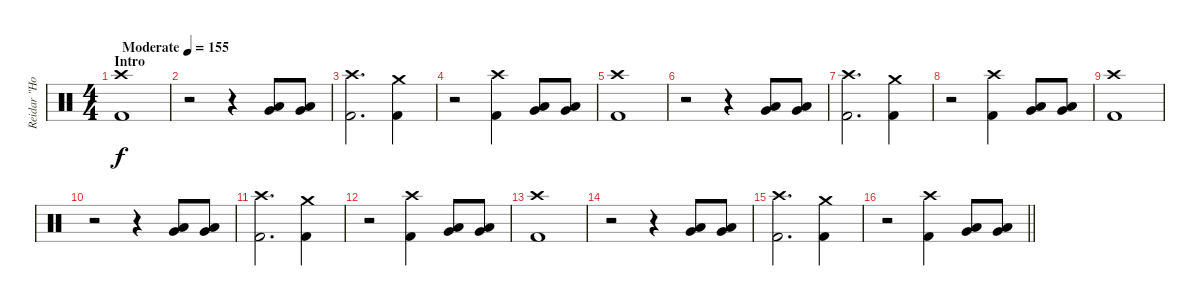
\track ("Reidar \"Horgh\" Horghagen " "Reidar \"Ho") {instrument percussion}
\staff {score}
\articulation defaults
\ts (4 4)
\section ("" "Intro")
\tempo (155 "Moderate")
\clef neutral
\ks c
("Crash high (hit)" "Kick (hit) 2").1{dy f} |
r.2 r.4 ("Very Low Tom (hit)" "Low Floor Tom (hit)").8 ("Very Low Tom (hit)" "Low Floor Tom (hit)").8 |
("Crash high (hit)" "Kick (hit) 2").2{d} ("Crash medium (hit)" "Kick (hit) 2").4 |
r.2 ("Crash high (hit)" "Kick (hit) 2").4 ("Very Low Tom (hit)" "Low Floor Tom (hit)").8 ("Very Low Tom (hit)" "Low Floor Tom (hit)").8 |
("Crash high (hit)" "Kick (hit) 2").1 |
r.2 r.4 ("Very Low Tom (hit)" "Low Floor Tom (hit)").8 ("Very Low Tom (hit)" "Low Floor Tom (hit)").8 |
("Crash high (hit)" "Kick (hit) 2").2{d} ("Crash medium (hit)" "Kick (hit) 2").4 |
r.2 ("Crash high (hit)" "Kick (hit) 2").4 ("Very Low Tom (hit)" "Low Floor Tom (hit)").8 ("Very Low Tom (hit)" "Low Floor Tom (hit)").8 |
("Crash high (hit)" "Kick (hit) 2").1 |
r.2 r.4 ("Very Low Tom (hit)" "Low Floor Tom (hit)").8 ("Very Low Tom (hit)" "Low Floor Tom (hit)").8 |
("Crash high (hit)" "Kick (hit) 2").2{d} ("Crash medium (hit)" "Kick (hit) 2").4 |
r.2 ("Crash high (hit)" "Kick (hit) 2").4 ("Very Low Tom (hit)" "Low Floor Tom (hit)").8 ("Very Low Tom (hit)" "Low Floor Tom (hit)").8 |
("Crash high (hit)" "Kick (hit) 2").1 |
r.2 r.4 ("Very Low Tom (hit)" "Low Floor Tom (hit)").8 ("Very Low Tom (hit)" "Low Floor Tom (hit)").8 |
("Crash high (hit)" "Kick (hit) 2").2{d} ("Crash medium (hit)" "Kick (hit) 2").4 |
\barLineRight lightlight
r.2 ("Crash high (hit)" "Kick (hit) 2").4 ("Very Low Tom (hit)" "Low Floor Tom (hit)").8 ("Very Low Tom (hit)" "Low Floor Tom (hit)").8
